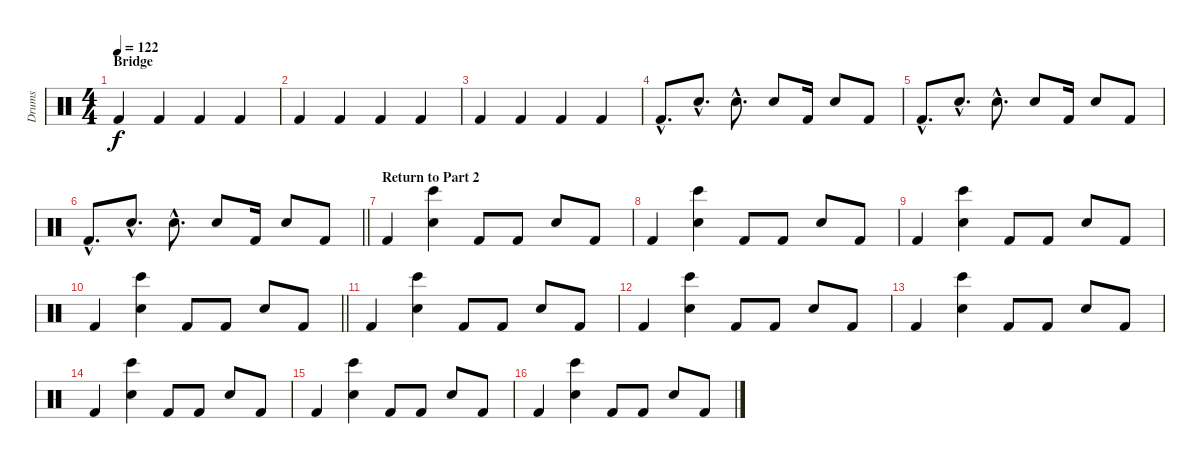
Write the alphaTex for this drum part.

\track ("Drums" "Drums") {instrument percussion}
\staff {score}
\articulation defaults
\ts (4 4)
\section ("" "Bridge")
\tempo 122
\clef neutral
\ks c "Kick (hit) 2".4{dy f} "Kick (hit) 2".4 "Kick (hit) 2".4 "Kick (hit) 2".4
|
"Kick (hit) 2".4 "Kick (hit) 2".4 "Kick (hit) 2".4 "Kick (hit) 2".4 |
"Kick (hit) 2".4 "Kick (hit) 2".4 "Kick (hit) 2".4 "Kick (hit) 2".4 |
"Kick (hit) 2"{hac}.8{d} "Snare (hit) 2"{hac}.8{d} "Snare (hit) 2"{hac}.8{d} "Snare (hit) 2".8 "Kick (hit) 2".16 "Snare (hit) 2".8 "Kick (hit) 2".8 |
"Kick (hit) 2"{hac}.8{d} "Snare (hit) 2"{hac}.8{d} "Snare (hit) 2"{hac}.8{d} "Snare (hit) 2".8 "Kick (hit) 2".16 "Snare (hit) 2".8 "Kick (hit) 2".8 |
\barLineRight lightlight "Kick (hit) 2"{hac}.8{d} "Snare (hit) 2"{hac}.8{d} "Snare (hit) 2"{hac}.8{d} "Snare (hit) 2".8 "Kick (hit) 2".16 "Snare (hit) 2".8 "Kick (hit) 2".8
|
\section ("" "Return to Part 2")
"Kick (hit) 2".4 ("Bongo High (hit)" "Hand Clap (hit)").4 "Kick (hit) 2".8 "Kick (hit) 2".8 "Snare (hit) 2".8 "Kick (hit) 2".8 |
"Kick (hit) 2".4 ("Bongo High (hit)" "Hand Clap (hit)").4 "Kick (hit) 2".8 "Kick (hit) 2".8 "Snare (hit) 2".8 "Kick (hit) 2".8 |
"Kick (hit) 2".4 ("Bongo High (hit)" "Hand Clap (hit)").4 "Kick (hit) 2".8 "Kick (hit) 2".8 "Snare (hit) 2".8 "Kick (hit) 2".8 |
\barLineRight lightlight "Kick (hit) 2".4
("Bongo High (hit)" "Hand Clap (hit)").4 "Kick (hit) 2".8 "Kick (hit) 2".8 "Snare (hit) 2".8 "Kick (hit) 2".8 |
"Kick (hit) 2".4 ("Bongo High (hit)" "Hand Clap (hit)").4 "Kick (hit) 2".8 "Kick (hit) 2".8 "Snare (hit) 2".8 "Kick (hit) 2".8 |
"Kick (hit) 2".4 ("Bongo High (hit)" "Hand Clap (hit)").4 "Kick (hit) 2".8 "Kick (hit) 2".8 "Snare (hit) 2".8 "Kick (hit) 2".8 |
"Kick (hit) 2".4 ("Bongo High (hit)" "Hand Clap (hit)").4 "Kick (hit) 2".8 "Kick (hit) 2".8 "Snare (hit) 2".8 "Kick (hit) 2".8 |
"Kick (hit) 2".4 ("Bongo High (hit)" "Hand Clap (hit)").4 "Kick (hit) 2".8 "Kick (hit) 2".8 "Snare (hit) 2".8 "Kick (hit) 2".8 |
"Kick (hit) 2".4 ("Bongo High (hit)" "Hand Clap (hit)").4 "Kick (hit) 2".8 "Kick (hit) 2".8 "Snare (hit) 2".8 "Kick (hit) 2".8 |
"Kick (hit) 2".4 ("Bongo High (hit)" "Hand Clap (hit)").4 "Kick (hit) 2".8 "Kick (hit) 2".8 "Snare (hit) 2".8 "Kick (hit) 2".8
